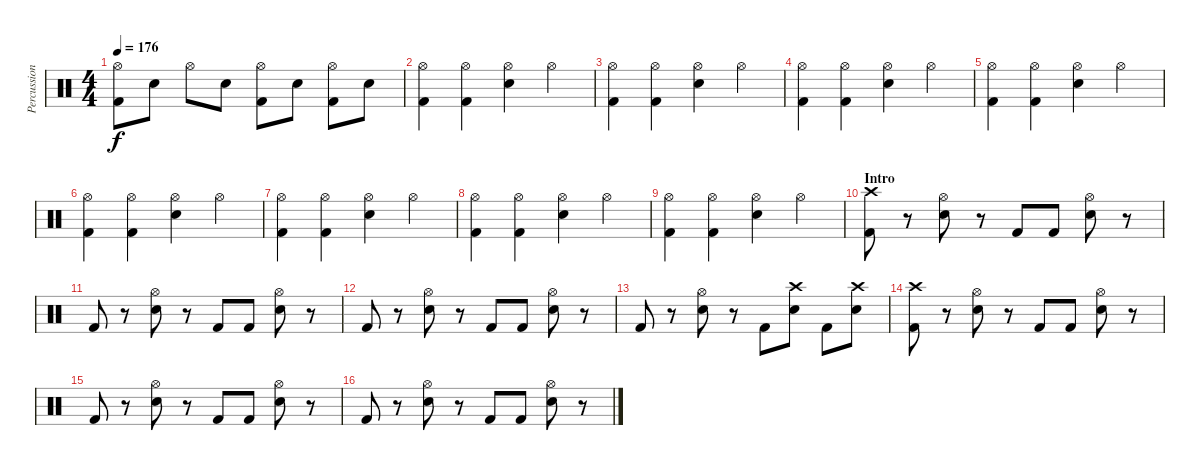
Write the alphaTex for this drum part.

\track ("Percussion" "Percussion") {instrument percussion}
\staff {score}
\articulation defaults
\ts (4 4)
\tempo 176
\clef neutral
\ks c
("Hi-Hat (open)" "Kick (hit) 2").8{dy f} "Snare (hit) 2".8 "Hi-Hat (open)".8 "Snare (hit) 2".8 ("Hi-Hat (open)" "Kick (hit) 2").8 "Snare (hit) 2".8 ("Hi-Hat (open)" "Kick (hit) 2").8 "Snare (hit) 2".8 |
("Hi-Hat (open)" "Kick (hit) 2").4 ("Hi-Hat (open)" "Kick (hit) 2").4 ("Hi-Hat (open)" "Snare (hit) 2").4 "Hi-Hat (open)".4 |
("Hi-Hat (open)" "Kick (hit) 2").4 ("Hi-Hat (open)" "Kick (hit) 2").4 ("Hi-Hat (open)" "Snare (hit) 2").4 "Hi-Hat (open)".4 |
("Hi-Hat (open)" "Kick (hit) 2").4 ("Hi-Hat (open)" "Kick (hit) 2").4 ("Hi-Hat (open)" "Snare (hit) 2").4 "Hi-Hat (open)".4 |
("Hi-Hat (open)" "Kick (hit) 2").4 ("Hi-Hat (open)" "Kick (hit) 2").4 ("Hi-Hat (open)" "Snare (hit) 2").4 "Hi-Hat (open)".4 |
("Hi-Hat (open)" "Kick (hit) 2").4 ("Hi-Hat (open)" "Kick (hit) 2").4 ("Hi-Hat (open)" "Snare (hit) 2").4 "Hi-Hat (open)".4 |
("Hi-Hat (open)" "Kick (hit) 2").4 ("Hi-Hat (open)" "Kick (hit) 2").4 ("Hi-Hat (open)" "Snare (hit) 2").4 "Hi-Hat (open)".4 |
("Hi-Hat (open)" "Kick (hit) 2").4 ("Hi-Hat (open)" "Kick (hit) 2").4 ("Hi-Hat (open)" "Snare (hit) 2").4 "Hi-Hat (open)".4 |
("Hi-Hat (open)" "Kick (hit) 2").4 ("Hi-Hat (open)" "Kick (hit) 2").4 ("Hi-Hat (open)" "Snare (hit) 2").4 "Hi-Hat (open)".4 |
\section ("" "Intro")
("Crash high (hit)" "Kick (hit) 2").8 r.8 ("Hi-Hat (open)" "Snare (hit) 2").8 r.8 "Kick (hit) 2".8 "Kick (hit) 2".8 ("Hi-Hat (open)" "Snare (hit) 2").8 r.8 |
"Kick (hit) 2".8 r.8 ("Hi-Hat (open)" "Snare (hit) 2").8 r.8 "Kick (hit) 2".8 "Kick (hit) 2".8 ("Hi-Hat (open)" "Snare (hit) 2").8 r.8 |
"Kick (hit) 2".8 r.8 ("Hi-Hat (open)" "Snare (hit) 2").8 r.8 "Kick (hit) 2".8 "Kick (hit) 2".8 ("Hi-Hat (open)" "Snare (hit) 2").8 r.8 |
"Kick (hit) 2".8 r.8 ("Hi-Hat (open)" "Snare (hit) 2").8 r.8 "Kick (hit) 2".8 ("Crash high (hit)" "Snare (hit) 2").8 "Kick (hit) 2".8 ("Crash high (hit)" "Snare (hit) 2").8 |
("Crash high (hit)" "Kick (hit) 2").8 r.8 ("Hi-Hat (open)" "Snare (hit) 2").8 r.8 "Kick (hit) 2".8 "Kick (hit) 2".8 ("Hi-Hat (open)" "Snare (hit) 2").8 r.8 |
"Kick (hit) 2".8 r.8 ("Hi-Hat (open)" "Snare (hit) 2").8 r.8 "Kick (hit) 2".8 "Kick (hit) 2".8 ("Hi-Hat (open)" "Snare (hit) 2").8 r.8 |
"Kick (hit) 2".8 r.8 ("Hi-Hat (open)" "Snare (hit) 2").8 r.8 "Kick (hit) 2".8 "Kick (hit) 2".8 ("Hi-Hat (open)" "Snare (hit) 2").8 r.8
